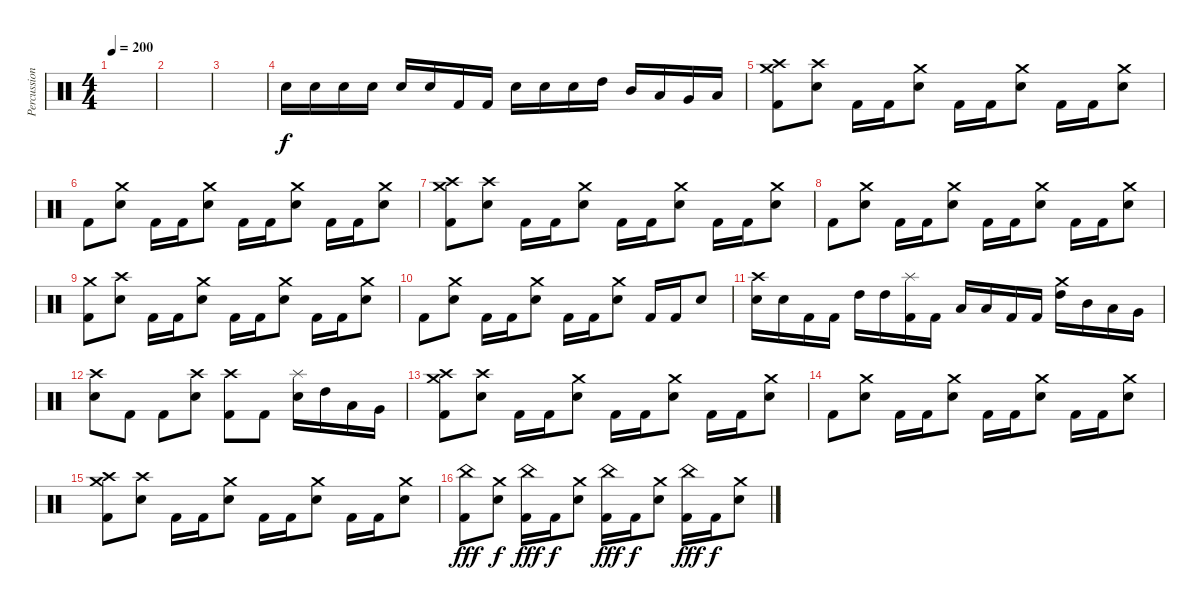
\track ("Percussion" "Percussion") {instrument percussion}
\staff {score}
\articulation defaults
\ts (4 4)
\tempo 200
\clef neutral
\ks c
|
|
|
"Electric Snare (hit)".16 "Electric Snare (hit)".16 "Electric Snare (hit)".16 "Electric Snare (hit)".16 "Electric Snare (hit)".16 "Electric Snare (hit)".16 "Kick (hit) 2".16 "Kick (hit) 2".16 "Electric Snare (hit)".16 "Electric Snare (hit)".16 "Electric Snare (hit)".16 "High Tom (hit)".16 "Mid Tom (hit)".16 "Low Tom (hit)".16 "Very Low Tom (hit)".16 "Low Floor Tom (hit)".16 |
("Kick (hit) 2" "Crash medium (hit)" "Crash high (hit)").8 ("Electric Snare (hit)" "Crash high (hit)").8 "Kick (hit) 2".16 "Kick (hit) 2".16 ("Crash medium (hit)" "Electric Snare (hit)").8 "Kick (hit) 2".16 "Kick (hit) 2".16 ("Crash medium (hit)" "Electric Snare (hit)").8 "Kick (hit) 2".16 "Kick (hit) 2".16 ("Crash medium (hit)" "Electric Snare (hit)").8 |
"Kick (hit) 2".8 ("Electric Snare (hit)" "Crash medium (hit)").8 "Kick (hit) 2".16 "Kick (hit) 2".16 ("Crash medium (hit)" "Electric Snare (hit)").8 "Kick (hit) 2".16 "Kick (hit) 2".16 ("Crash medium (hit)" "Electric Snare (hit)").8 "Kick (hit) 2".16 "Kick (hit) 2".16 ("Crash medium (hit)" "Electric Snare (hit)").8 |
("Kick (hit) 2" "Crash medium (hit)" "Crash high (hit)").8 ("Electric Snare (hit)" "Crash high (hit)").8 "Kick (hit) 2".16 "Kick (hit) 2".16 ("Crash medium (hit)" "Electric Snare (hit)").8 "Kick (hit) 2".16 "Kick (hit) 2".16 ("Crash medium (hit)" "Electric Snare (hit)").8 "Kick (hit) 2".16 "Kick (hit) 2".16 ("Crash medium (hit)" "Electric Snare (hit)").8 |
"Kick (hit) 2".8 ("Electric Snare (hit)" "Crash medium (hit)").8 "Kick (hit) 2".16 "Kick (hit) 2".16 ("Crash medium (hit)" "Electric Snare (hit)").8 "Kick (hit) 2".16 "Kick (hit) 2".16 ("Crash medium (hit)" "Electric Snare (hit)").8 "Kick (hit) 2".16 "Kick (hit) 2".16 ("Crash medium (hit)" "Electric Snare (hit)").8 |
("Kick (hit) 2" "Crash medium (hit)").8 ("Electric Snare (hit)" "Crash high (hit)").8 "Kick (hit) 2".16 "Kick (hit) 2".16 ("Crash medium (hit)" "Electric Snare (hit)").8 "Kick (hit) 2".16 "Kick (hit) 2".16 ("Crash medium (hit)" "Electric Snare (hit)").8 "Kick (hit) 2".16 "Kick (hit) 2".16 ("Crash medium (hit)" "Electric Snare (hit)").8 |
"Kick (hit) 2".8 ("Electric Snare (hit)" "Crash medium (hit)").8 "Kick (hit) 2".16 "Kick (hit) 2".16 ("Crash medium (hit)" "Electric Snare (hit)").8 "Kick (hit) 2".16 "Kick (hit) 2".16 ("Crash medium (hit)" "Electric Snare (hit)").8 "Kick (hit) 2".16 "Kick (hit) 2".16 "Electric Snare (hit)".8 |
("Electric Snare (hit)" "Crash high (hit)").16 "Electric Snare (hit)".16 "Kick (hit) 2".16 "Kick (hit) 2".16 "High Tom (hit)".16 "High Tom (hit)".16 ("Kick (hit) 2" "Splash (hit)").16 "Kick (hit) 2".16 "Low Tom (hit)".16 "Low Tom (hit)".16 "Kick (hit) 2".16 "Kick (hit) 2".16 ("High Tom (hit)" "Crash medium (hit)").16 "Mid Tom (hit)".16 "Low Tom (hit)".16 "Very Low Tom (hit)".16 |
("Electric Snare (hit)" "Crash high (hit)").8 "Kick (hit) 2".8 "Kick (hit) 2".8 ("Electric Snare (hit)" "Crash high (hit)").8 ("Kick (hit) 2" "Crash high (hit)").8 "Kick (hit) 2".8 ("Electric Snare (hit)" "Splash (hit)").16 "High Tom (hit)".16 "Low Tom (hit)".16 "Very Low Tom (hit)".16 |
("Kick (hit) 2" "Crash medium (hit)" "Crash high (hit)").8 ("Electric Snare (hit)" "Crash high (hit)").8 "Kick (hit) 2".16 "Kick (hit) 2".16 ("Crash medium (hit)" "Electric Snare (hit)").8 "Kick (hit) 2".16 "Kick (hit) 2".16 ("Crash medium (hit)" "Electric Snare (hit)").8 "Kick (hit) 2".16 "Kick (hit) 2".16 ("Crash medium (hit)" "Electric Snare (hit)").8 |
"Kick (hit) 2".8 ("Electric Snare (hit)" "Crash medium (hit)").8 "Kick (hit) 2".16 "Kick (hit) 2".16 ("Crash medium (hit)" "Electric Snare (hit)").8 "Kick (hit) 2".16 "Kick (hit) 2".16 ("Crash medium (hit)" "Electric Snare (hit)").8 "Kick (hit) 2".16 "Kick (hit) 2".16 ("Crash medium (hit)" "Electric Snare (hit)").8 |
("Kick (hit) 2" "Crash medium (hit)" "Crash high (hit)").8 ("Electric Snare (hit)" "Crash high (hit)").8 "Kick (hit) 2".16 "Kick (hit) 2".16 ("Crash medium (hit)" "Electric Snare (hit)").8 "Kick (hit) 2".16 "Kick (hit) 2".16 ("Crash medium (hit)" "Electric Snare (hit)").8 "Kick (hit) 2".16 "Kick (hit) 2".16 ("Crash medium (hit)" "Electric Snare (hit)").8 |
("Kick (hit) 2" "China (hit)").8{dy fff} ("Electric Snare (hit)" "Crash medium (hit)").8{dy f} ("Kick (hit) 2" "China (hit)").16{dy fff} "Kick (hit) 2".16{dy f} ("Crash medium (hit)" "Electric Snare (hit)").8 ("China (hit)" "Kick (hit) 2").16{dy fff} "Kick (hit) 2".16{dy f} ("Crash medium (hit)" "Electric Snare (hit)").8 ("China (hit)" "Kick (hit) 2").16{dy fff} "Kick (hit) 2".16{dy f} ("Crash medium (hit)" "Electric Snare (hit)").8
